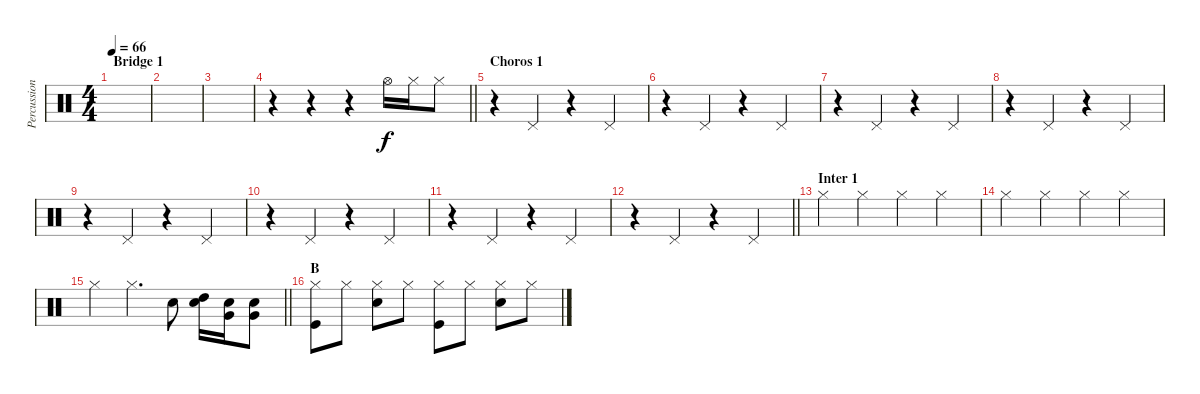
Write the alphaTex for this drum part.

\track ("Percussion" "Percussion") {instrument percussion}
\staff {score}
\articulation defaults
\ts (4 4)
\section ("" "Bridge 1")
\tempo 66
\clef neutral
\ks c
|
|
|
\barLineRight lightlight
r.4 r.4 r.4 "Hi-Hat (open)".16 "Hi-Hat (closed)".16 "Hi-Hat (closed)".8 |
\section ("" "Choros 1")
r.4 "Pedal Hi-Hat (hit)".4 r.4 "Pedal Hi-Hat (hit)".4 |
r.4 "Pedal Hi-Hat (hit)".4 r.4 "Pedal Hi-Hat (hit)".4 |
r.4 "Pedal Hi-Hat (hit)".4 r.4 "Pedal Hi-Hat (hit)".4 |
r.4 "Pedal Hi-Hat (hit)".4 r.4 "Pedal Hi-Hat (hit)".4 |
r.4 "Pedal Hi-Hat (hit)".4 r.4 "Pedal Hi-Hat (hit)".4 |
r.4 "Pedal Hi-Hat (hit)".4 r.4 "Pedal Hi-Hat (hit)".4 |
r.4 "Pedal Hi-Hat (hit)".4 r.4 "Pedal Hi-Hat (hit)".4 |
\barLineRight lightlight
r.4 "Pedal Hi-Hat (hit)".4 r.4 "Pedal Hi-Hat (hit)".4 |
\section ("" "Inter 1")
"Hi-Hat (closed)".4 "Hi-Hat (closed)".4 "Hi-Hat (closed)".4 "Hi-Hat (closed)".4 |
"Hi-Hat (closed)".4 "Hi-Hat (closed)".4 "Hi-Hat (closed)".4 "Hi-Hat (closed)".4 |
\barLineRight lightlight "Hi-Hat (closed)".4 "Hi-Hat (closed)".4{d} "Snare (hit) 2".8
("Snare (hit) 2" "High Tom (hit)").16 ("Snare (hit) 2" "Very Low Tom (hit)").16 ("Snare (hit) 2" "Very Low Tom (hit)").8 |
\section ("" "B")
("Hi-Hat (closed)" "Kick (hit)").8 "Hi-Hat (closed)".8 ("Hi-Hat (closed)" "Snare (hit) 2").8 "Hi-Hat (closed)".8 ("Hi-Hat (closed)" "Kick (hit)").8 "Hi-Hat (closed)".8 ("Hi-Hat (closed)" "Snare (hit) 2").8 "Hi-Hat (closed)".8
